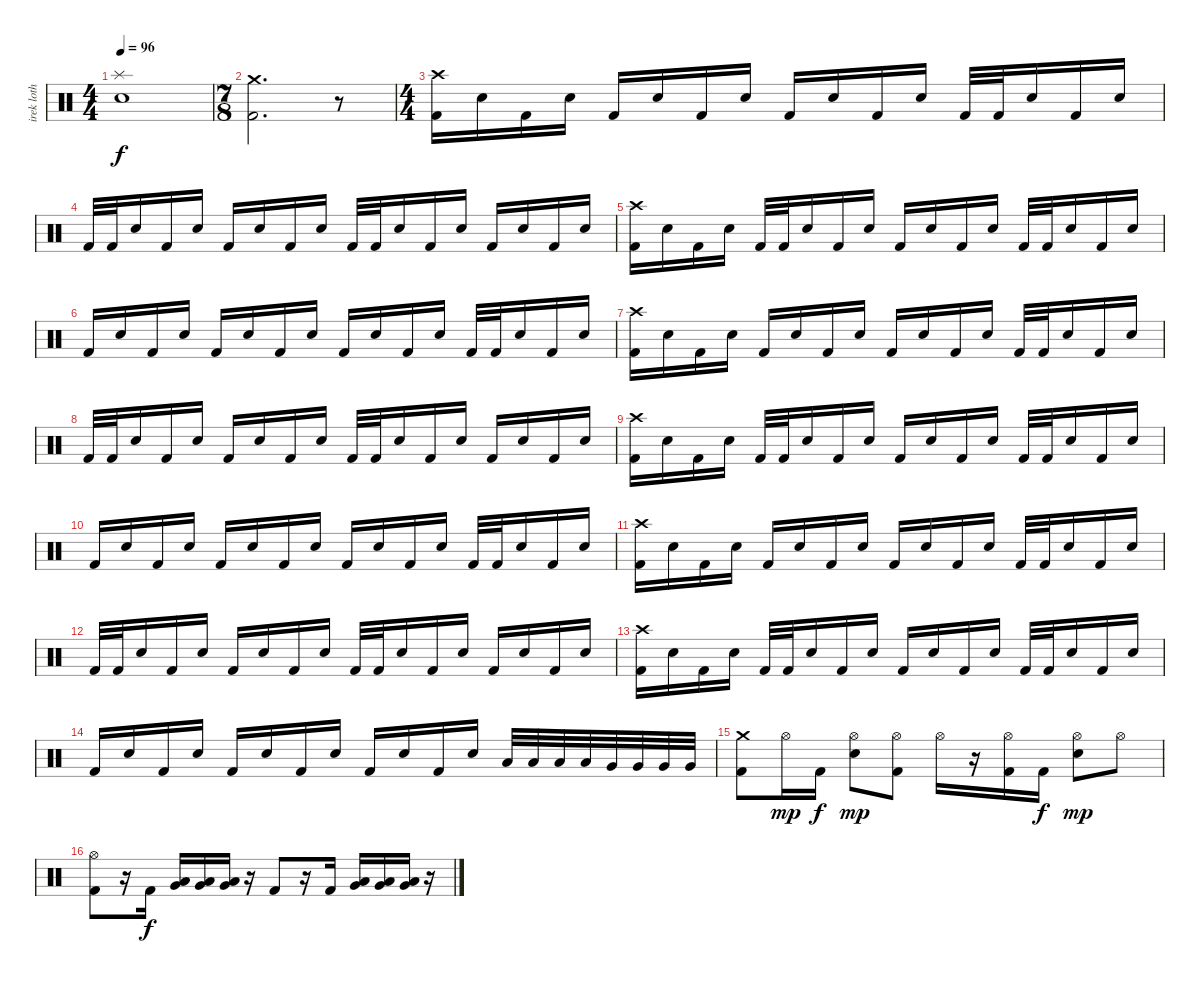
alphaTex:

\track ("irek loth" "irek loth") {instrument percussion}
\staff {score}
\articulation defaults
\ts (4 4)
\tempo 96
\clef neutral
\ks c
("Snare (hit) 2" "Splash (hit)").1{dy f} |
\ts (7 8)
("Crash medium (hit)" "Kick (hit) 2").2{d} r.8 |
\ts (4 4)
("Crash high (hit)" "Kick (hit) 2").16 "Snare (hit) 2".16 "Kick (hit) 2".16 "Snare (hit) 2".16 "Kick (hit) 2".16 "Snare (hit) 2".16 "Kick (hit) 2".16 "Snare (hit) 2".16 "Kick (hit) 2".16 "Snare (hit) 2".16 "Kick (hit) 2".16 "Snare (hit) 2".16 "Kick (hit) 2".32 "Kick (hit) 2".32 "Snare (hit) 2".16 "Kick (hit) 2".16 "Snare (hit) 2".16 |
"Kick (hit) 2".32 "Kick (hit) 2".32 "Snare (hit) 2".16 "Kick (hit) 2".16 "Snare (hit) 2".16 "Kick (hit) 2".16 "Snare (hit) 2".16 "Kick (hit) 2".16 "Snare (hit) 2".16 "Kick (hit) 2".32 "Kick (hit) 2".32 "Snare (hit) 2".16 "Kick (hit) 2".16 "Snare (hit) 2".16 "Kick (hit) 2".16 "Snare (hit) 2".16 "Kick (hit) 2".16 "Snare (hit) 2".16 |
("Crash high (hit)" "Kick (hit) 2").16 "Snare (hit) 2".16 "Kick (hit) 2".16 "Snare (hit) 2".16 "Kick (hit) 2".32 "Kick (hit) 2".32 "Snare (hit) 2".16 "Kick (hit) 2".16 "Snare (hit) 2".16 "Kick (hit) 2".16 "Snare (hit) 2".16 "Kick (hit) 2".16 "Snare (hit) 2".16 "Kick (hit) 2".32 "Kick (hit) 2".32 "Snare (hit) 2".16 "Kick (hit) 2".16 "Snare (hit) 2".16 |
"Kick (hit) 2".16 "Snare (hit) 2".16 "Kick (hit) 2".16 "Snare (hit) 2".16 "Kick (hit) 2".16 "Snare (hit) 2".16 "Kick (hit) 2".16 "Snare (hit) 2".16 "Kick (hit) 2".16 "Snare (hit) 2".16 "Kick (hit) 2".16 "Snare (hit) 2".16 "Kick (hit) 2".32 "Kick (hit) 2".32 "Snare (hit) 2".16 "Kick (hit) 2".16 "Snare (hit) 2".16 |
("Crash high (hit)" "Kick (hit) 2").16 "Snare (hit) 2".16 "Kick (hit) 2".16 "Snare (hit) 2".16 "Kick (hit) 2".16 "Snare (hit) 2".16 "Kick (hit) 2".16 "Snare (hit) 2".16 "Kick (hit) 2".16 "Snare (hit) 2".16 "Kick (hit) 2".16 "Snare (hit) 2".16 "Kick (hit) 2".32 "Kick (hit) 2".32 "Snare (hit) 2".16 "Kick (hit) 2".16 "Snare (hit) 2".16 |
"Kick (hit) 2".32 "Kick (hit) 2".32 "Snare (hit) 2".16 "Kick (hit) 2".16 "Snare (hit) 2".16 "Kick (hit) 2".16 "Snare (hit) 2".16 "Kick (hit) 2".16 "Snare (hit) 2".16 "Kick (hit) 2".32 "Kick (hit) 2".32 "Snare (hit) 2".16 "Kick (hit) 2".16 "Snare (hit) 2".16 "Kick (hit) 2".16 "Snare (hit) 2".16 "Kick (hit) 2".16 "Snare (hit) 2".16 |
("Crash high (hit)" "Kick (hit) 2").16 "Snare (hit) 2".16 "Kick (hit) 2".16 "Snare (hit) 2".16 "Kick (hit) 2".32 "Kick (hit) 2".32 "Snare (hit) 2".16 "Kick (hit) 2".16 "Snare (hit) 2".16 "Kick (hit) 2".16 "Snare (hit) 2".16 "Kick (hit) 2".16 "Snare (hit) 2".16 "Kick (hit) 2".32 "Kick (hit) 2".32 "Snare (hit) 2".16 "Kick (hit) 2".16 "Snare (hit) 2".16 |
"Kick (hit) 2".16 "Snare (hit) 2".16 "Kick (hit) 2".16 "Snare (hit) 2".16 "Kick (hit) 2".16 "Snare (hit) 2".16 "Kick (hit) 2".16 "Snare (hit) 2".16 "Kick (hit) 2".16 "Snare (hit) 2".16 "Kick (hit) 2".16 "Snare (hit) 2".16 "Kick (hit) 2".32 "Kick (hit) 2".32 "Snare (hit) 2".16 "Kick (hit) 2".16 "Snare (hit) 2".16 |
("Crash high (hit)" "Kick (hit) 2").16 "Snare (hit) 2".16 "Kick (hit) 2".16 "Snare (hit) 2".16 "Kick (hit) 2".16 "Snare (hit) 2".16 "Kick (hit) 2".16 "Snare (hit) 2".16 "Kick (hit) 2".16 "Snare (hit) 2".16 "Kick (hit) 2".16 "Snare (hit) 2".16 "Kick (hit) 2".32 "Kick (hit) 2".32 "Snare (hit) 2".16 "Kick (hit) 2".16 "Snare (hit) 2".16 |
"Kick (hit) 2".32 "Kick (hit) 2".32 "Snare (hit) 2".16 "Kick (hit) 2".16 "Snare (hit) 2".16 "Kick (hit) 2".16 "Snare (hit) 2".16 "Kick (hit) 2".16 "Snare (hit) 2".16 "Kick (hit) 2".32 "Kick (hit) 2".32 "Snare (hit) 2".16 "Kick (hit) 2".16 "Snare (hit) 2".16 "Kick (hit) 2".16 "Snare (hit) 2".16 "Kick (hit) 2".16 "Snare (hit) 2".16 |
("Crash high (hit)" "Kick (hit) 2").16 "Snare (hit) 2".16 "Kick (hit) 2".16 "Snare (hit) 2".16 "Kick (hit) 2".32 "Kick (hit) 2".32 "Snare (hit) 2".16 "Kick (hit) 2".16 "Snare (hit) 2".16 "Kick (hit) 2".16 "Snare (hit) 2".16 "Kick (hit) 2".16 "Snare (hit) 2".16 "Kick (hit) 2".32 "Kick (hit) 2".32 "Snare (hit) 2".16 "Kick (hit) 2".16 "Snare (hit) 2".16 |
"Kick (hit) 2".16 "Snare (hit) 2".16 "Kick (hit) 2".16 "Snare (hit) 2".16 "Kick (hit) 2".16 "Snare (hit) 2".16 "Kick (hit) 2".16 "Snare (hit) 2".16 "Kick (hit) 2".16 "Snare (hit) 2".16 "Kick (hit) 2".16 "Snare (hit) 2".16 "Low Tom (hit)".32 "Low Tom (hit)".32 "Low Tom (hit)".32 "Low Tom (hit)".32 "Very Low Tom (hit)".32 "Very Low Tom (hit)".32 "Very Low Tom (hit)".32 "Very Low Tom (hit)".32 |
("Crash medium (hit)" "Kick (hit) 2").8 "Hi-Hat (open)".16{dy mp} "Kick (hit) 2".16{dy f} ("Snare (hit) 2" "Hi-Hat (open)").8{dy mp} ("Hi-Hat (open)" "Kick (hit) 2").8 "Hi-Hat (open)".16 r.16 ("Hi-Hat (open)" "Kick (hit) 2").16 "Kick (hit) 2".16{dy f} ("Snare (hit) 2" "Hi-Hat (open)").8{dy mp} "Hi-Hat (open)".8 |
("Hi-Hat (open)" "Kick (hit) 2").8 r.16 "Kick (hit) 2".16{dy f} ("Low Tom (hit)" "Very Low Tom (hit)").16 ("Low Tom (hit)" "Very Low Tom (hit)").16 ("Very Low Tom (hit)" "Low Floor Tom (hit)").16 r.16 "Kick (hit) 2".8 r.16 "Kick (hit) 2".16 ("Low Tom (hit)" "Very Low Tom (hit)").16 ("Low Tom (hit)" "Very Low Tom (hit)").16 ("Very Low Tom (hit)" "Low Floor Tom (hit)").16 r.16
